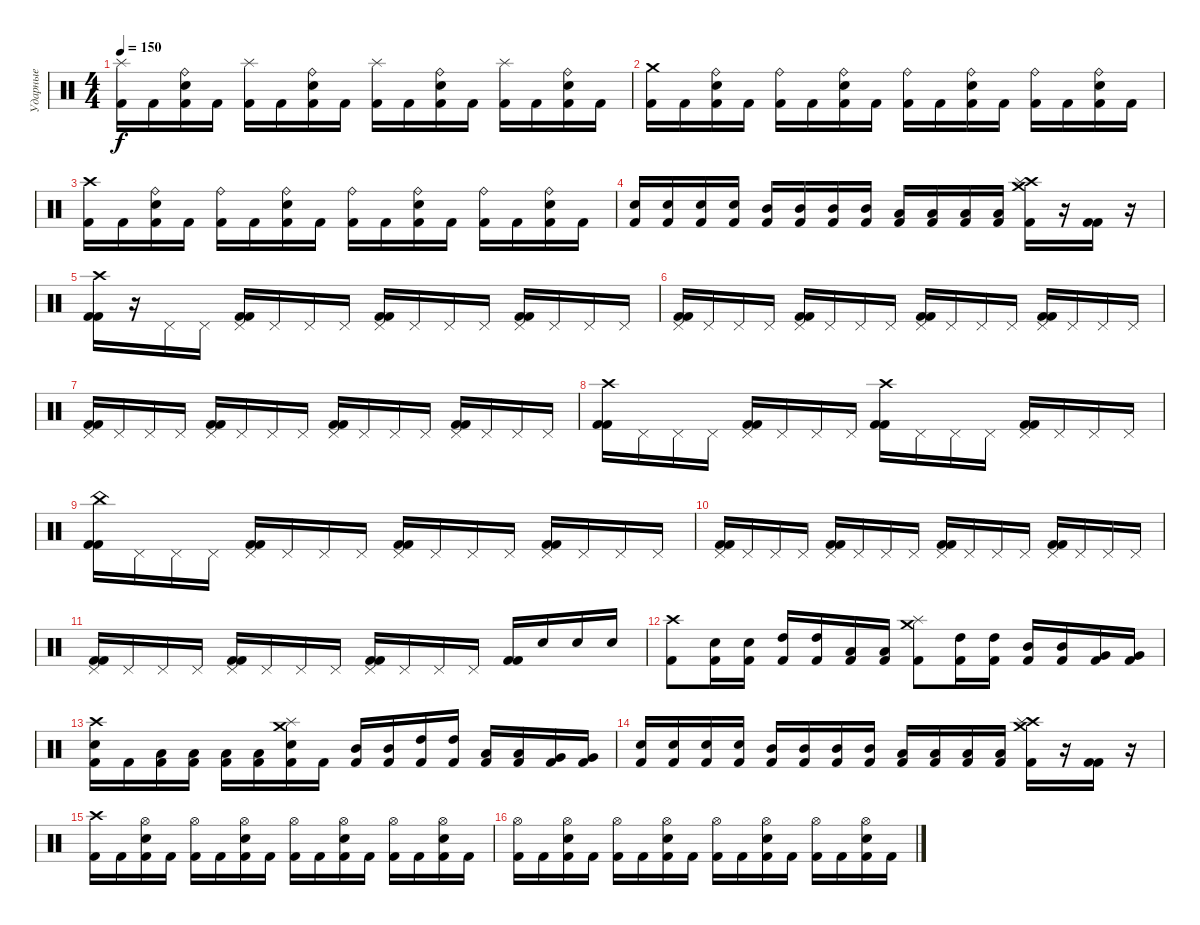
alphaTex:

\track ("Ударные" "Ударные") {instrument percussion}
\staff {score}
\articulation defaults
\ts (4 4)
\tempo 150
\clef neutral
\ks c
("Splash (hit)" "Kick (hit) 2").16{dy f} "Kick (hit) 2".16 ("Ride (bell)" "Electric Snare (hit)" "Kick (hit) 2").16 "Kick (hit) 2".16 ("Splash (hit)" "Kick (hit) 2").16 "Kick (hit) 2".16 ("Ride (bell)" "Electric Snare (hit)" "Kick (hit) 2").16 "Kick (hit) 2".16 ("Splash (hit)" "Kick (hit) 2").16 "Kick (hit) 2".16 ("Ride (bell)" "Electric Snare (hit)" "Kick (hit) 2").16 "Kick (hit) 2".16 ("Splash (hit)" "Kick (hit) 2").16 "Kick (hit) 2".16 ("Ride (bell)" "Electric Snare (hit)" "Kick (hit) 2").16 "Kick (hit) 2".16 |
("Crash medium (hit)" "Kick (hit) 2").16 "Kick (hit) 2".16 ("Ride (bell)" "Electric Snare (hit)" "Kick (hit) 2").16 "Kick (hit) 2".16 ("Ride (bell)" "Kick (hit) 2").16 "Kick (hit) 2".16 ("Ride (bell)" "Electric Snare (hit)" "Kick (hit) 2").16 "Kick (hit) 2".16 ("Ride (bell)" "Kick (hit) 2").16 "Kick (hit) 2".16 ("Ride (bell)" "Electric Snare (hit)" "Kick (hit) 2").16 "Kick (hit) 2".16 ("Ride (bell)" "Kick (hit) 2").16 "Kick (hit) 2".16 ("Ride (bell)" "Electric Snare (hit)" "Kick (hit) 2").16 "Kick (hit) 2".16 |
("Crash high (hit)" "Kick (hit) 2").16 "Kick (hit) 2".16 ("Ride (bell)" "Electric Snare (hit)" "Kick (hit) 2").16 "Kick (hit) 2".16 ("Ride (bell)" "Kick (hit) 2").16 "Kick (hit) 2".16 ("Ride (bell)" "Electric Snare (hit)" "Kick (hit) 2").16 "Kick (hit) 2".16 ("Ride (bell)" "Kick (hit) 2").16 "Kick (hit) 2".16 ("Ride (bell)" "Electric Snare (hit)" "Kick (hit) 2").16 "Kick (hit) 2".16 ("Ride (bell)" "Kick (hit) 2").16 "Kick (hit) 2".16 ("Ride (bell)" "Electric Snare (hit)" "Kick (hit) 2").16 "Kick (hit) 2".16 |
("Electric Snare (hit)" "Kick (hit) 2").16 ("Electric Snare (hit)" "Kick (hit) 2").16 ("Electric Snare (hit)" "Kick (hit) 2").16 ("Electric Snare (hit)" "Kick (hit) 2").16 ("Mid Tom (hit)" "Kick (hit) 2").16 ("Mid Tom (hit)" "Kick (hit) 2").16 ("Mid Tom (hit)" "Kick (hit) 2").16 ("Mid Tom (hit)" "Kick (hit) 2").16 ("Low Tom (hit)" "Kick (hit) 2").16 ("Low Tom (hit)" "Kick (hit) 2").16 ("Low Tom (hit)" "Kick (hit) 2").16 ("Low Tom (hit)" "Kick (hit) 2").16 ("Crash high (hit)" "Crash medium (hit)" "Splash (hit)" "Kick (hit) 2").16 r.16 ("Kick (hit) 2" "Kick (hit) 2").16 r.16 |
("Crash high (hit)" "Kick (hit) 2" "Kick (hit) 2").16 r.16 "Pedal Hi-Hat (hit)".16 "Pedal Hi-Hat (hit)".16 ("Pedal Hi-Hat (hit)" "Kick (hit) 2" "Kick (hit) 2").16 "Pedal Hi-Hat (hit)".16 "Pedal Hi-Hat (hit)".16 "Pedal Hi-Hat (hit)".16 ("Pedal Hi-Hat (hit)" "Kick (hit) 2" "Kick (hit) 2").16 "Pedal Hi-Hat (hit)".16 "Pedal Hi-Hat (hit)".16 "Pedal Hi-Hat (hit)".16 ("Pedal Hi-Hat (hit)" "Kick (hit) 2" "Kick (hit) 2").16 "Pedal Hi-Hat (hit)".16 "Pedal Hi-Hat (hit)".16 "Pedal Hi-Hat (hit)".16 |
("Pedal Hi-Hat (hit)" "Kick (hit) 2" "Kick (hit) 2").16 "Pedal Hi-Hat (hit)".16 "Pedal Hi-Hat (hit)".16 "Pedal Hi-Hat (hit)".16 ("Pedal Hi-Hat (hit)" "Kick (hit) 2" "Kick (hit) 2").16 "Pedal Hi-Hat (hit)".16 "Pedal Hi-Hat (hit)".16 "Pedal Hi-Hat (hit)".16 ("Pedal Hi-Hat (hit)" "Kick (hit) 2" "Kick (hit) 2").16 "Pedal Hi-Hat (hit)".16 "Pedal Hi-Hat (hit)".16 "Pedal Hi-Hat (hit)".16 ("Pedal Hi-Hat (hit)" "Kick (hit) 2" "Kick (hit) 2").16 "Pedal Hi-Hat (hit)".16 "Pedal Hi-Hat (hit)".16 "Pedal Hi-Hat (hit)".16 |
("Pedal Hi-Hat (hit)" "Kick (hit) 2" "Kick (hit) 2").16 "Pedal Hi-Hat (hit)".16 "Pedal Hi-Hat (hit)".16 "Pedal Hi-Hat (hit)".16 ("Pedal Hi-Hat (hit)" "Kick (hit) 2" "Kick (hit) 2").16 "Pedal Hi-Hat (hit)".16 "Pedal Hi-Hat (hit)".16 "Pedal Hi-Hat (hit)".16 ("Pedal Hi-Hat (hit)" "Kick (hit) 2" "Kick (hit) 2").16 "Pedal Hi-Hat (hit)".16 "Pedal Hi-Hat (hit)".16 "Pedal Hi-Hat (hit)".16 ("Pedal Hi-Hat (hit)" "Kick (hit) 2" "Kick (hit) 2").16 "Pedal Hi-Hat (hit)".16 "Pedal Hi-Hat (hit)".16 "Pedal Hi-Hat (hit)".16 |
("Crash high (hit)" "Kick (hit) 2" "Kick (hit) 2").16 "Pedal Hi-Hat (hit)".16 "Pedal Hi-Hat (hit)".16 "Pedal Hi-Hat (hit)".16 ("Pedal Hi-Hat (hit)" "Kick (hit) 2" "Kick (hit) 2").16 "Pedal Hi-Hat (hit)".16 "Pedal Hi-Hat (hit)".16 "Pedal Hi-Hat (hit)".16 ("Crash high (hit)" "Kick (hit) 2" "Kick (hit) 2").16 "Pedal Hi-Hat (hit)".16 "Pedal Hi-Hat (hit)".16 "Pedal Hi-Hat (hit)".16 ("Pedal Hi-Hat (hit)" "Kick (hit) 2" "Kick (hit) 2").16 "Pedal Hi-Hat (hit)".16 "Pedal Hi-Hat (hit)".16 "Pedal Hi-Hat (hit)".16 |
("China (hit)" "Kick (hit) 2" "Kick (hit) 2").16 "Pedal Hi-Hat (hit)".16 "Pedal Hi-Hat (hit)".16 "Pedal Hi-Hat (hit)".16 ("Pedal Hi-Hat (hit)" "Kick (hit) 2" "Kick (hit) 2").16 "Pedal Hi-Hat (hit)".16 "Pedal Hi-Hat (hit)".16 "Pedal Hi-Hat (hit)".16 ("Pedal Hi-Hat (hit)" "Kick (hit) 2" "Kick (hit) 2").16 "Pedal Hi-Hat (hit)".16 "Pedal Hi-Hat (hit)".16 "Pedal Hi-Hat (hit)".16 ("Pedal Hi-Hat (hit)" "Kick (hit) 2" "Kick (hit) 2").16 "Pedal Hi-Hat (hit)".16 "Pedal Hi-Hat (hit)".16 "Pedal Hi-Hat (hit)".16 |
("Pedal Hi-Hat (hit)" "Kick (hit) 2" "Kick (hit) 2").16 "Pedal Hi-Hat (hit)".16 "Pedal Hi-Hat (hit)".16 "Pedal Hi-Hat (hit)".16 ("Pedal Hi-Hat (hit)" "Kick (hit) 2" "Kick (hit) 2").16 "Pedal Hi-Hat (hit)".16 "Pedal Hi-Hat (hit)".16 "Pedal Hi-Hat (hit)".16 ("Pedal Hi-Hat (hit)" "Kick (hit) 2" "Kick (hit) 2").16 "Pedal Hi-Hat (hit)".16 "Pedal Hi-Hat (hit)".16 "Pedal Hi-Hat (hit)".16 ("Pedal Hi-Hat (hit)" "Kick (hit) 2" "Kick (hit) 2").16 "Pedal Hi-Hat (hit)".16 "Pedal Hi-Hat (hit)".16 "Pedal Hi-Hat (hit)".16 |
("Pedal Hi-Hat (hit)" "Kick (hit) 2" "Kick (hit) 2").16 "Pedal Hi-Hat (hit)".16 "Pedal Hi-Hat (hit)".16 "Pedal Hi-Hat (hit)".16 ("Pedal Hi-Hat (hit)" "Kick (hit) 2" "Kick (hit) 2").16 "Pedal Hi-Hat (hit)".16 "Pedal Hi-Hat (hit)".16 "Pedal Hi-Hat (hit)".16 ("Pedal Hi-Hat (hit)" "Kick (hit) 2" "Kick (hit) 2").16 "Pedal Hi-Hat (hit)".16 "Pedal Hi-Hat (hit)".16 "Pedal Hi-Hat (hit)".16 ("Kick (hit) 2" "Kick (hit) 2").16 "Electric Snare (hit)".16 "Electric Snare (hit)".16 "Electric Snare (hit)".16 |
("Crash high (hit)" "Kick (hit) 2").8 ("Electric Snare (hit)" "Kick (hit) 2").16 ("Electric Snare (hit)" "Kick (hit) 2").16 ("High Tom (hit)" "Kick (hit) 2").16 ("High Tom (hit)" "Kick (hit) 2").16 ("Low Tom (hit)" "Kick (hit) 2").16 ("Low Tom (hit)" "Kick (hit) 2").16 ("Crash medium (hit)" "Splash (hit)" "Kick (hit) 2").8 ("High Tom (hit)" "Kick (hit) 2").16 ("High Tom (hit)" "Kick (hit) 2").16 ("Mid Tom (hit)" "Kick (hit) 2").16 ("Mid Tom (hit)" "Kick (hit) 2").16 ("Very Low Tom (hit)" "Kick (hit) 2").16 ("Very Low Tom (hit)" "Kick (hit) 2").16 |
("Crash high (hit)" "Electric Snare (hit)" "Kick (hit) 2").16 "Kick (hit) 2".16 ("Low Tom (hit)" "Kick (hit) 2").16 ("Low Tom (hit)" "Kick (hit) 2").16 ("Low Tom (hit)" "Kick (hit) 2").16 ("Low Tom (hit)" "Kick (hit) 2").16 ("Crash medium (hit)" "Splash (hit)" "Electric Snare (hit)" "Kick (hit) 2").16 "Kick (hit) 2".16 ("Mid Tom (hit)" "Kick (hit) 2").16 ("Mid Tom (hit)" "Kick (hit) 2").16 ("High Tom (hit)" "Kick (hit) 2").16 ("High Tom (hit)" "Kick (hit) 2").16 ("Low Tom (hit)" "Kick (hit) 2").16 ("Low Tom (hit)" "Kick (hit) 2").16 ("Very Low Tom (hit)" "Kick (hit) 2").16 ("Very Low Tom (hit)" "Kick (hit) 2").16 |
("Electric Snare (hit)" "Kick (hit) 2").16 ("Electric Snare (hit)" "Kick (hit) 2").16 ("Electric Snare (hit)" "Kick (hit) 2").16 ("Electric Snare (hit)" "Kick (hit) 2").16 ("Mid Tom (hit)" "Kick (hit) 2").16 ("Mid Tom (hit)" "Kick (hit) 2").16 ("Mid Tom (hit)" "Kick (hit) 2").16 ("Mid Tom (hit)" "Kick (hit) 2").16 ("Low Tom (hit)" "Kick (hit) 2").16 ("Low Tom (hit)" "Kick (hit) 2").16 ("Low Tom (hit)" "Kick (hit) 2").16 ("Low Tom (hit)" "Kick (hit) 2").16 ("Crash high (hit)" "Crash medium (hit)" "Splash (hit)" "Kick (hit) 2").16 r.16 ("Kick (hit) 2" "Kick (hit) 2").16 r.16 |
("Crash high (hit)" "Kick (hit) 2").16 "Kick (hit) 2".16 ("Hi-Hat (open)" "Electric Snare (hit)" "Kick (hit) 2").16 "Kick (hit) 2".16 ("Hi-Hat (open)" "Kick (hit) 2").16 "Kick (hit) 2".16 ("Hi-Hat (open)" "Electric Snare (hit)" "Kick (hit) 2").16 "Kick (hit) 2".16 ("Hi-Hat (open)" "Kick (hit) 2").16 "Kick (hit) 2".16 ("Hi-Hat (open)" "Electric Snare (hit)" "Kick (hit) 2").16 "Kick (hit) 2".16 ("Hi-Hat (open)" "Kick (hit) 2").16 "Kick (hit) 2".16 ("Hi-Hat (open)" "Electric Snare (hit)" "Kick (hit) 2").16 "Kick (hit) 2".16 |
("Hi-Hat (open)" "Kick (hit) 2").16 "Kick (hit) 2".16 ("Hi-Hat (open)" "Electric Snare (hit)" "Kick (hit) 2").16 "Kick (hit) 2".16 ("Hi-Hat (open)" "Kick (hit) 2").16 "Kick (hit) 2".16 ("Hi-Hat (open)" "Electric Snare (hit)" "Kick (hit) 2").16 "Kick (hit) 2".16 ("Hi-Hat (open)" "Kick (hit) 2").16 "Kick (hit) 2".16 ("Hi-Hat (open)" "Electric Snare (hit)" "Kick (hit) 2").16 "Kick (hit) 2".16 ("Hi-Hat (open)" "Kick (hit) 2").16 "Kick (hit) 2".16 ("Hi-Hat (open)" "Electric Snare (hit)" "Kick (hit) 2").16 "Kick (hit) 2".16
